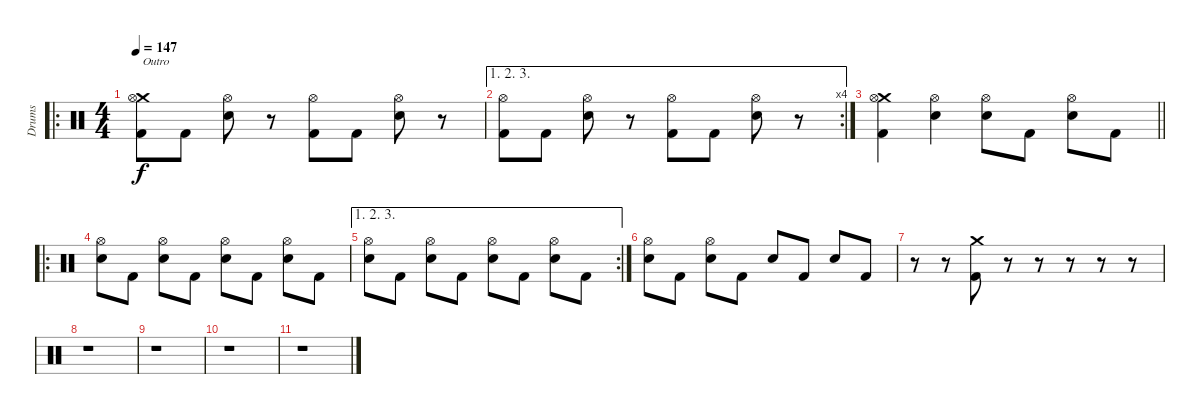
\track ("Drums" "Drums") {instrument percussion}
\staff {score}
\articulation defaults
\ro
\ts (4 4)
\tempo 147
\clef neutral
\ks c
("Crash medium (hit)" "Hi-Hat (open)" "Kick (hit) 2").8{txt "Outro" dy f} "Kick (hit) 2".8 ("Hi-Hat (open)" "Electric Snare (hit)").8 r.8 ("Hi-Hat (open)" "Kick (hit) 2").8 "Kick (hit) 2".8 ("Hi-Hat (open)" "Electric Snare (hit)").8 r.8 |
\ae (1 2 3)
\rc 4
("Hi-Hat (open)" "Kick (hit) 2").8 "Kick (hit) 2".8 ("Hi-Hat (open)" "Electric Snare (hit)").8 r.8 ("Hi-Hat (open)" "Kick (hit) 2").8 "Kick (hit) 2".8 ("Hi-Hat (open)" "Electric Snare (hit)").8 r.8 |
\barLineRight lightlight
("Crash medium (hit)" "Hi-Hat (open)" "Kick (hit) 2").4 ("Hi-Hat (open)" "Electric Snare (hit)").4 ("Hi-Hat (open)" "Electric Snare (hit)").8 "Kick (hit) 2".8 ("Hi-Hat (open)" "Electric Snare (hit)").8 "Kick (hit) 2".8 |
\ro
("Hi-Hat (open)" "Electric Snare (hit)").8 "Kick (hit) 2".8 ("Hi-Hat (open)" "Electric Snare (hit)").8 "Kick (hit) 2".8 ("Hi-Hat (open)" "Electric Snare (hit)").8 "Kick (hit) 2".8 ("Hi-Hat (open)" "Electric Snare (hit)").8 "Kick (hit) 2".8 |
\ae (1 2 3)
\rc 2
("Hi-Hat (open)" "Electric Snare (hit)").8 "Kick (hit) 2".8 ("Hi-Hat (open)" "Electric Snare (hit)").8 "Kick (hit) 2".8 ("Hi-Hat (open)" "Electric Snare (hit)").8 "Kick (hit) 2".8 ("Hi-Hat (open)" "Electric Snare (hit)").8 "Kick (hit) 2".8 |
("Hi-Hat (open)" "Electric Snare (hit)").8 "Kick (hit) 2".8 ("Hi-Hat (open)" "Electric Snare (hit)").8 "Kick (hit) 2".8 "Electric Snare (hit)".8 "Kick (hit) 2".8 "Electric Snare (hit)".8 "Kick (hit) 2".8 |
r.8 r.8 ("Crash medium (hit)" "Kick (hit) 2").8 r.8 r.8 r.8 r.8 r.8 |
r.1 |
r.1 |
r.1 |
r.1
